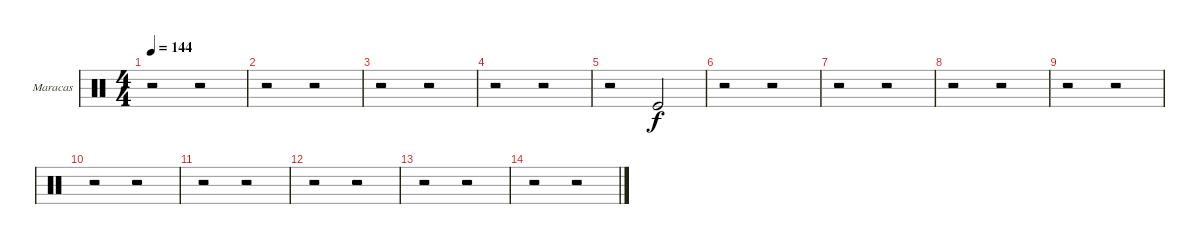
\bracketExtendMode groupsimilarinstruments
\firstSystemTrackNameOrientation horizontal
\otherSystemsTrackNameOrientation horizontal
\track ("Maracas" "Maracas") {instrument percussion}
\staff {score}
\articulation defaults
\ts (4 4)
\tempo 144
\clef neutral
\ks c
r.2{dy f} r.2 |
r.2 r.2 |
r.2 r.2 |
r.2 r.2 |
r.2 "Kick (hit)".2 |
r.2 r.2 |
r.2 r.2 |
r.2 r.2 |
r.2 r.2 |
r.2 r.2 |
r.2 r.2 |
r.2 r.2 |
r.2 r.2 |
r.2 r.2
